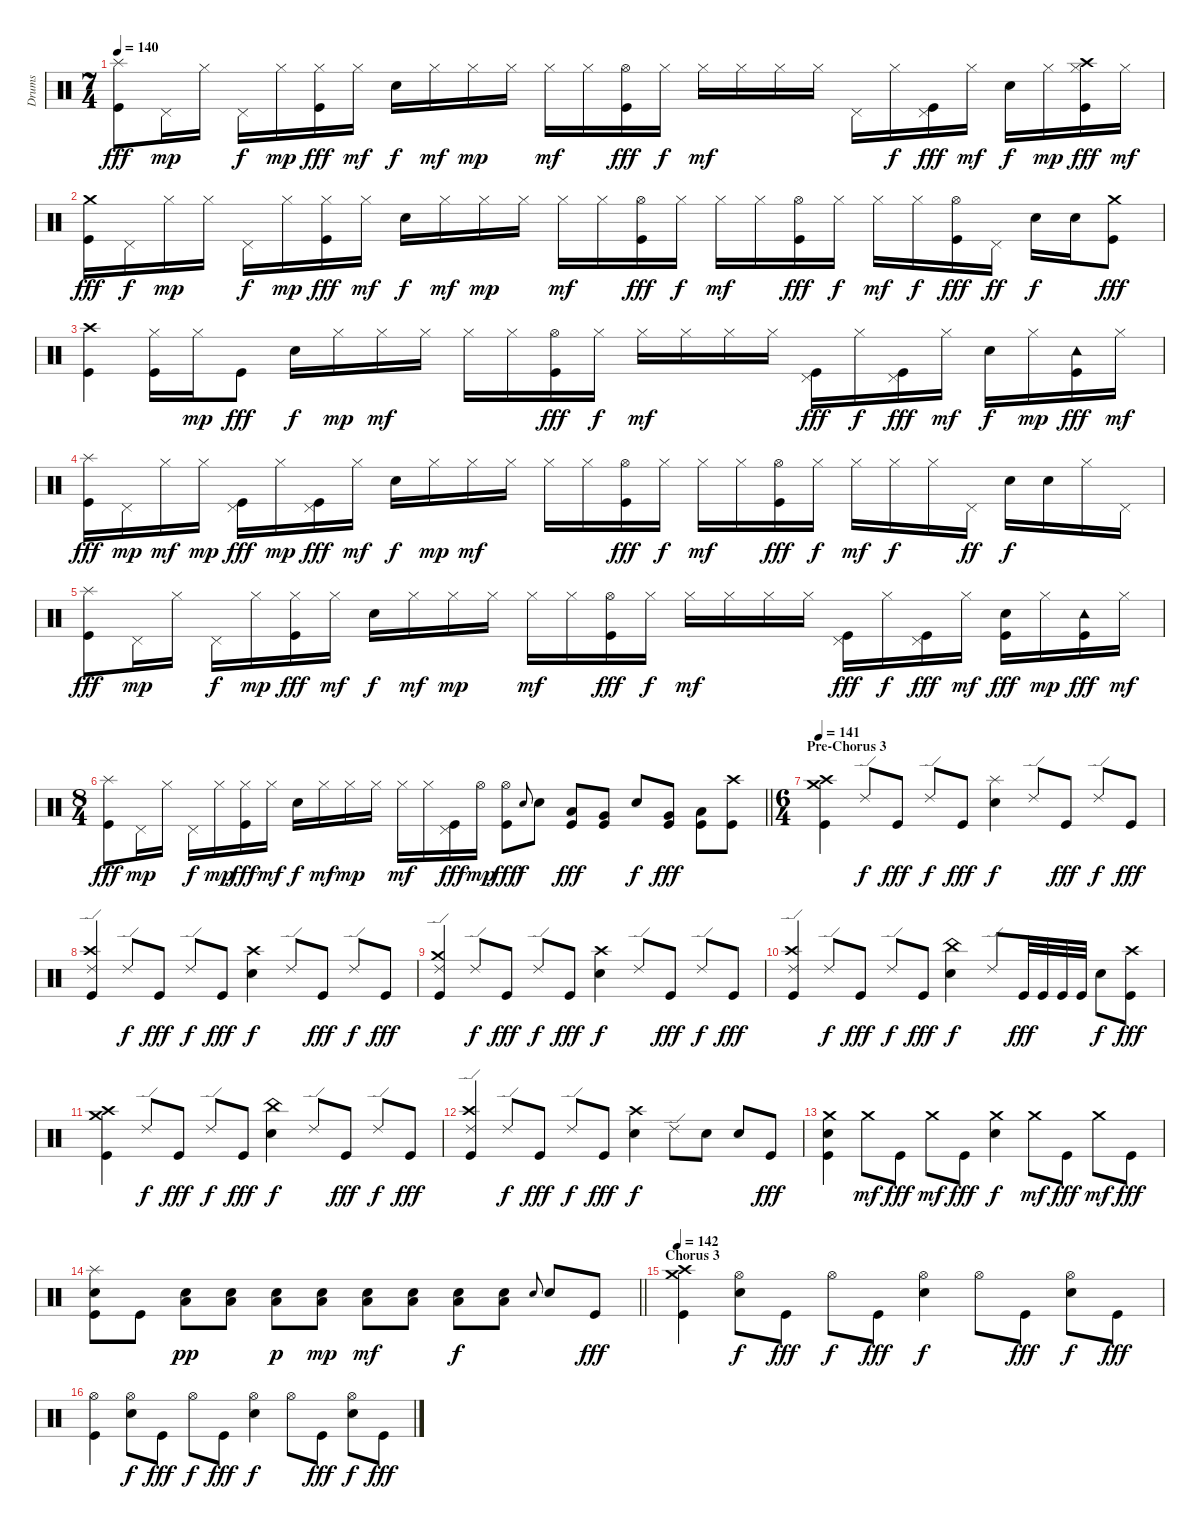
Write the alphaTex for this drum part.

\track ("Drums" "Drums") {instrument percussion}
\staff {score}
\articulation defaults
\ts (7 4)
\tempo 140
\clef neutral
\ks c
("Splash (hit)" "Kick (hit)").8{dy fff} "Pedal Hi-Hat (hit)".16{dy mp} "Hi-Hat (closed)".16 "Pedal Hi-Hat (hit)".16{dy f} "Hi-Hat (closed)".16{dy mp} ("Hi-Hat (closed)" "Kick (hit)").16{dy fff} "Hi-Hat (closed)".16{dy mf} "Electric Snare (hit)".16{dy f} "Hi-Hat (closed)".16{dy mf} "Hi-Hat (closed)".16{dy mp} "Hi-Hat (closed)".16 "Hi-Hat (closed)".16{dy mf} "Hi-Hat (closed)".16 ("Hi-Hat (open)" "Kick (hit)").16{dy fff} "Hi-Hat (closed)".16{dy f} "Hi-Hat (closed)".16{dy mf} "Hi-Hat (closed)".16 "Hi-Hat (closed)".16 "Hi-Hat (closed)".16 "Pedal Hi-Hat (hit)".16 "Hi-Hat (closed)".16{dy f} ("Pedal Hi-Hat (hit)" "Kick (hit)").16{dy fff} "Hi-Hat (closed)".16{dy mf} "Electric Snare (hit)".16{dy f} "Hi-Hat (closed)".16{dy mp} ("Crash high (hit)" "Hi-Hat (closed)" "Kick (hit)").16{dy fff} "Hi-Hat (closed)".16{dy mf} |
("Crash medium (hit)" "Kick (hit)").16{dy fff} "Pedal Hi-Hat (hit)".16{dy f} "Hi-Hat (closed)".16{dy mp} "Hi-Hat (closed)".16 "Pedal Hi-Hat (hit)".16{dy f} "Hi-Hat (closed)".16{dy mp} ("Hi-Hat (closed)" "Kick (hit)").16{dy fff} "Hi-Hat (closed)".16{dy mf} "Electric Snare (hit)".16{dy f} "Hi-Hat (closed)".16{dy mf} "Hi-Hat (closed)".16{dy mp} "Hi-Hat (closed)".16 "Hi-Hat (closed)".16{dy mf} "Hi-Hat (closed)".16 ("Hi-Hat (open)" "Kick (hit)").16{dy fff} "Hi-Hat (closed)".16{dy f} "Hi-Hat (closed)".16{dy mf} "Hi-Hat (closed)".16 ("Hi-Hat (open)" "Kick (hit)").16{dy fff} "Hi-Hat (closed)".16{dy f} "Hi-Hat (closed)".16{dy mf} "Hi-Hat (closed)".16{dy f} ("Hi-Hat (open)" "Kick (hit)").16{dy fff} "Pedal Hi-Hat (hit)".16{dy ff} "Electric Snare (hit)".16{dy f} "Electric Snare (hit)".16 ("Crash medium (hit)" "Kick (hit)").8{dy fff} |
("Crash high (hit)" "Kick (hit)").4 ("Hi-Hat (closed)" "Kick (hit)").16 "Hi-Hat (closed)".16{dy mp} "Kick (hit)".8{dy fff} "Electric Snare (hit)".16{dy f} "Hi-Hat (closed)".16{dy mp} "Hi-Hat (closed)".16{dy mf} "Hi-Hat (closed)".16 "Hi-Hat (closed)".16 "Hi-Hat (closed)".16 ("Hi-Hat (open)" "Kick (hit)").16{dy fff} "Hi-Hat (closed)".16{dy f} "Hi-Hat (closed)".16{dy mf} "Hi-Hat (closed)".16 "Hi-Hat (closed)".16 "Hi-Hat (closed)".16 ("Pedal Hi-Hat (hit)" "Kick (hit)").16{dy fff} "Hi-Hat (closed)".16{dy f} ("Pedal Hi-Hat (hit)" "Kick (hit)").16{dy fff} "Hi-Hat (closed)".16{dy mf} "Electric Snare (hit)".16{dy f} "Hi-Hat (closed)".16{dy mp} ("Tambourine (hit)" "Kick (hit)").16{dy fff} "Hi-Hat (closed)".16{dy mf} |
("Splash (hit)" "Kick (hit)").16{dy fff} "Pedal Hi-Hat (hit)".16{dy mp} "Hi-Hat (closed)".16{dy mf} "Hi-Hat (closed)".16{dy mp} ("Pedal Hi-Hat (hit)" "Kick (hit)").16{dy fff} "Hi-Hat (closed)".16{dy mp} ("Pedal Hi-Hat (hit)" "Kick (hit)").16{dy fff} "Hi-Hat (closed)".16{dy mf} "Electric Snare (hit)".16{dy f} "Hi-Hat (closed)".16{dy mp} "Hi-Hat (closed)".16{dy mf} "Hi-Hat (closed)".16 "Hi-Hat (closed)".16 "Hi-Hat (closed)".16 ("Hi-Hat (open)" "Kick (hit)").16{dy fff} "Hi-Hat (closed)".16{dy f} "Hi-Hat (closed)".16{dy mf} "Hi-Hat (closed)".16 ("Hi-Hat (open)" "Kick (hit)").16{dy fff} "Hi-Hat (closed)".16{dy f} "Hi-Hat (closed)".16{dy mf} "Hi-Hat (closed)".16{dy f} "Hi-Hat (closed)".16 "Pedal Hi-Hat (hit)".16{dy ff} "Electric Snare (hit)".16{dy f} "Electric Snare (hit)".16 "Hi-Hat (closed)".16 "Pedal Hi-Hat (hit)".16 |
("Splash (hit)" "Kick (hit)").8{dy fff} "Pedal Hi-Hat (hit)".16{dy mp} "Hi-Hat (closed)".16 "Pedal Hi-Hat (hit)".16{dy f} "Hi-Hat (closed)".16{dy mp} ("Hi-Hat (closed)" "Kick (hit)").16{dy fff} "Hi-Hat (closed)".16{dy mf} "Electric Snare (hit)".16{dy f} "Hi-Hat (closed)".16{dy mf} "Hi-Hat (closed)".16{dy mp} "Hi-Hat (closed)".16 "Hi-Hat (closed)".16{dy mf} "Hi-Hat (closed)".16 ("Hi-Hat (open)" "Kick (hit)").16{dy fff} "Hi-Hat (closed)".16{dy f} "Hi-Hat (closed)".16{dy mf} "Hi-Hat (closed)".16 "Hi-Hat (closed)".16 "Hi-Hat (closed)".16 ("Pedal Hi-Hat (hit)" "Kick (hit)").16{dy fff} "Hi-Hat (closed)".16{dy f} ("Pedal Hi-Hat (hit)" "Kick (hit)").16{dy fff} "Hi-Hat (closed)".16{dy mf} ("Electric Snare (hit)" "Kick (hit)").16{dy fff} "Hi-Hat (closed)".16{dy mp} ("Tambourine (hit)" "Kick (hit)").16{dy fff} "Hi-Hat (closed)".16{dy mf} |
\ts (8 4)
\barLineRight lightlight
("Splash (hit)" "Kick (hit)").8{dy fff} "Pedal Hi-Hat (hit)".16{dy mp} "Hi-Hat (closed)".16 "Pedal Hi-Hat (hit)".16{dy f} "Hi-Hat (closed)".16{dy mp} ("Hi-Hat (closed)" "Kick (hit)").16{dy fff} "Hi-Hat (closed)".16{dy mf} "Electric Snare (hit)".16{dy f} "Hi-Hat (closed)".16{dy mf} "Hi-Hat (closed)".16{dy mp} "Hi-Hat (closed)".16 "Hi-Hat (closed)".16{dy mf} "Hi-Hat (closed)".16 ("Pedal Hi-Hat (hit)" "Kick (hit)").16{dy fff} "Hi-Hat (open)".16{dy mp} ("Hi-Hat (open)" "Kick (hit)").8{dy fff} "Electric Snare (hit)".8{gr onbeat dy f} "Electric Snare (hit)".8 ("Low Tom (hit)" "Kick (hit)").8{dy fff} ("Very Low Tom (hit)" "Kick (hit)").8 "Electric Snare (hit)".8{dy f} ("Very Low Tom (hit)" "Kick (hit)").8{dy fff} ("Low Floor Tom (hit)" "Kick (hit)").8 ("Crash high (hit)" "Kick (hit)").8 |
\ts (6 4)
\section ("" "Pre-Chorus 3")
\tempo 141
("Crash medium (hit)" "Crash high (hit)" "Kick (hit)").4 "Ride (edge) 2".8{dy f} "Kick (hit)".8{dy fff} "Ride (edge) 2".8{dy f} "Kick (hit)".8{dy fff} ("Splash (hit)" "Electric Snare (hit)").4{dy f} "Ride (edge) 2".8 "Kick (hit)".8{dy fff} "Ride (edge) 2".8{dy f} "Kick (hit)".8{dy fff} |
("Crash high (hit)" "Ride (edge) 2" "Kick (hit)").4 "Ride (edge) 2".8{dy f} "Kick (hit)".8{dy fff} "Ride (edge) 2".8{dy f} "Kick (hit)".8{dy fff} ("Crash high (hit)" "Electric Snare (hit)").4{dy f} "Ride (edge) 2".8 "Kick (hit)".8{dy fff} "Ride (edge) 2".8{dy f} "Kick (hit)".8{dy fff} |
("Crash medium (hit)" "Ride (edge) 2" "Kick (hit)").4 "Ride (edge) 2".8{dy f} "Kick (hit)".8{dy fff} "Ride (edge) 2".8{dy f} "Kick (hit)".8{dy fff} ("Crash high (hit)" "Electric Snare (hit)").4{dy f} "Ride (edge) 2".8 "Kick (hit)".8{dy fff} "Ride (edge) 2".8{dy f} "Kick (hit)".8{dy fff} |
("Crash high (hit)" "Ride (edge) 2" "Kick (hit)").4 "Ride (edge) 2".8{dy f} "Kick (hit)".8{dy fff} "Ride (edge) 2".8{dy f} "Kick (hit)".8{dy fff} ("China (hit)" "Electric Snare (hit)").4{dy f} "Ride (edge) 2".8 "Kick (hit)".32{dy fff} "Kick (hit)".32 "Kick (hit)".32 "Kick (hit)".32 "Electric Snare (hit)".8{dy f} ("Crash high (hit)" "Kick (hit)").8{dy fff} |
("Crash medium (hit)" "Crash high (hit)" "Kick (hit)").4 "Ride (edge) 2".8{dy f} "Kick (hit)".8{dy fff} "Ride (edge) 2".8{dy f} "Kick (hit)".8{dy fff} ("China (hit)" "Electric Snare (hit)").4{dy f} "Ride (edge) 2".8 "Kick (hit)".8{dy fff} "Ride (edge) 2".8{dy f} "Kick (hit)".8{dy fff} |
("Crash high (hit)" "Ride (edge) 2" "Kick (hit)").4 "Ride (edge) 2".8{dy f} "Kick (hit)".8{dy fff} "Ride (edge) 2".8{dy f} "Kick (hit)".8{dy fff} ("Crash high (hit)" "Electric Snare (hit)").4{dy f} "Ride (edge) 2".8 "Electric Snare (hit)".8 "Electric Snare (hit)".8 "Kick (hit)".8{dy fff} |
("Crash medium (hit)" "Electric Snare (hit)" "Kick (hit)").4 "Crash medium (hit)".8{dy mf} "Kick (hit)".8{dy fff} "Crash medium (hit)".8{dy mf} "Kick (hit)".8{dy fff} ("Crash medium (hit)" "Electric Snare (hit)").4{dy f} "Crash medium (hit)".8{dy mf} "Kick (hit)".8{dy fff} "Crash medium (hit)".8{dy mf} "Kick (hit)".8{dy fff} |
\barLineRight lightlight
("Splash (hit)" "Electric Snare (hit)" "Kick (hit)").8 "Kick (hit)".8 ("Electric Snare (hit)" "Low Floor Tom (hit)").8{dy pp} ("Electric Snare (hit)" "Low Floor Tom (hit)").8 ("Electric Snare (hit)" "Low Floor Tom (hit)").8{dy p} ("Electric Snare (hit)" "Low Floor Tom (hit)").8{dy mp} ("Electric Snare (hit)" "Low Floor Tom (hit)").8{dy mf} ("Electric Snare (hit)" "Low Floor Tom (hit)").8 ("Electric Snare (hit)" "Low Floor Tom (hit)").8{dy f} ("Electric Snare (hit)" "Low Floor Tom (hit)").8 "Electric Snare (hit)".8{gr onbeat} "Electric Snare (hit)".8 "Kick (hit)".8{dy fff} |
\section ("" "Chorus 3")
\tempo 142
("Crash medium (hit)" "Crash high (hit)" "Kick (hit)").4 ("Hi-Hat (open)" "Electric Snare (hit)").8{dy f} "Kick (hit)".8{dy fff} "Hi-Hat (open)".8{dy f} "Kick (hit)".8{dy fff} ("Hi-Hat (open)" "Electric Snare (hit)").4{dy f} "Hi-Hat (open)".8 "Kick (hit)".8{dy fff} ("Hi-Hat (open)" "Electric Snare (hit)").8{dy f} "Kick (hit)".8{dy fff} |
("Hi-Hat (open)" "Kick (hit)").4 ("Hi-Hat (open)" "Electric Snare (hit)").8{dy f} "Kick (hit)".8{dy fff} "Hi-Hat (open)".8{dy f} "Kick (hit)".8{dy fff} ("Hi-Hat (open)" "Electric Snare (hit)").4{dy f} "Hi-Hat (open)".8 "Kick (hit)".8{dy fff} ("Hi-Hat (open)" "Electric Snare (hit)").8{dy f} "Kick (hit)".8{dy fff}
